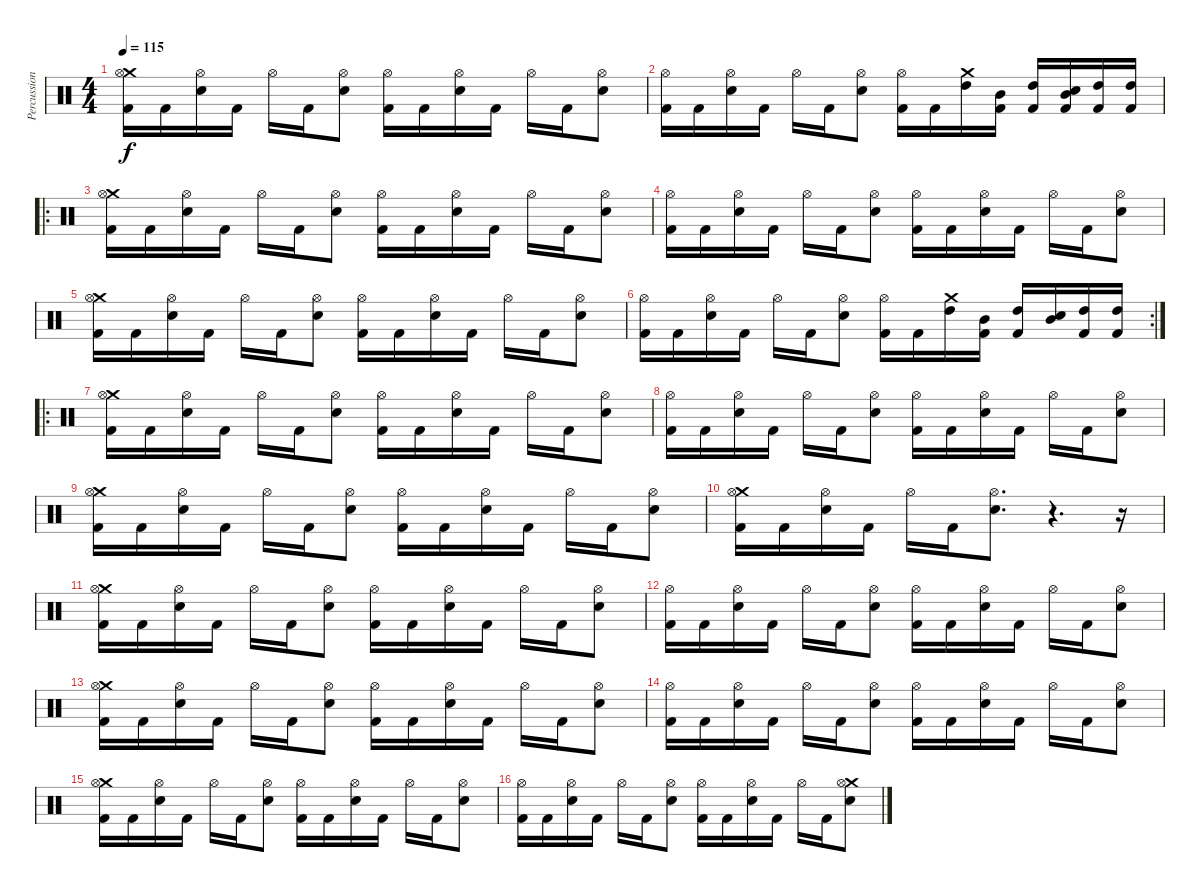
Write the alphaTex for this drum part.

\track ("Percussion" "Percussion") {instrument percussion}
\staff {score}
\articulation defaults
\ts (4 4)
\tempo 115
\clef neutral
\ks c
("Crash medium (hit)" "Hi-Hat (open)" "Kick (hit) 2").16{dy f} "Kick (hit) 2".16 ("Hi-Hat (open)" "Snare (hit) 2").16 "Kick (hit) 2".16 "Hi-Hat (open)".16 "Kick (hit) 2".16 ("Hi-Hat (open)" "Snare (hit) 2").8 ("Hi-Hat (open)" "Kick (hit) 2").16 "Kick (hit) 2".16 ("Hi-Hat (open)" "Snare (hit) 2").16 "Kick (hit) 2".16 "Hi-Hat (open)".16 "Kick (hit) 2".16 ("Hi-Hat (open)" "Snare (hit) 2").8 |
("Hi-Hat (open)" "Kick (hit) 2").16 "Kick (hit) 2".16 ("Hi-Hat (open)" "Snare (hit) 2").16 "Kick (hit) 2".16 "Hi-Hat (open)".16 "Kick (hit) 2".16 ("Hi-Hat (open)" "Snare (hit) 2").8 ("Hi-Hat (open)" "Kick (hit) 2").16 "Kick (hit) 2".16 ("Crash medium (hit)" "High Tom (hit)").16 ("Mid Tom (hit)" "Kick (hit) 2").16 ("High Tom (hit)" "Kick (hit) 2").16 ("Mid Tom (hit)" "Snare (hit) 2" "Kick (hit) 2").16 ("High Tom (hit)" "Kick (hit) 2").16 ("High Tom (hit)" "Kick (hit) 2").16 |
\ro
("Crash medium (hit)" "Hi-Hat (open)" "Kick (hit) 2").16 "Kick (hit) 2".16 ("Hi-Hat (open)" "Snare (hit) 2").16 "Kick (hit) 2".16 "Hi-Hat (open)".16 "Kick (hit) 2".16 ("Hi-Hat (open)" "Snare (hit) 2").8 ("Hi-Hat (open)" "Kick (hit) 2").16 "Kick (hit) 2".16 ("Hi-Hat (open)" "Snare (hit) 2").16 "Kick (hit) 2".16 "Hi-Hat (open)".16 "Kick (hit) 2".16 ("Hi-Hat (open)" "Snare (hit) 2").8 |
("Hi-Hat (open)" "Kick (hit) 2").16 "Kick (hit) 2".16 ("Hi-Hat (open)" "Snare (hit) 2").16 "Kick (hit) 2".16 "Hi-Hat (open)".16 "Kick (hit) 2".16 ("Hi-Hat (open)" "Snare (hit) 2").8 ("Hi-Hat (open)" "Kick (hit) 2").16 "Kick (hit) 2".16 ("Hi-Hat (open)" "Snare (hit) 2").16 "Kick (hit) 2".16 "Hi-Hat (open)".16 "Kick (hit) 2".16 ("Hi-Hat (open)" "Snare (hit) 2").8 |
("Crash medium (hit)" "Hi-Hat (open)" "Kick (hit) 2").16 "Kick (hit) 2".16 ("Hi-Hat (open)" "Snare (hit) 2").16 "Kick (hit) 2".16 "Hi-Hat (open)".16 "Kick (hit) 2".16 ("Hi-Hat (open)" "Snare (hit) 2").8 ("Hi-Hat (open)" "Kick (hit) 2").16 "Kick (hit) 2".16 ("Hi-Hat (open)" "Snare (hit) 2").16 "Kick (hit) 2".16 "Hi-Hat (open)".16 "Kick (hit) 2".16 ("Hi-Hat (open)" "Snare (hit) 2").8 |
\rc 2
("Hi-Hat (open)" "Kick (hit) 2").16 "Kick (hit) 2".16 ("Hi-Hat (open)" "Snare (hit) 2").16 "Kick (hit) 2".16 "Hi-Hat (open)".16 "Kick (hit) 2".16 ("Hi-Hat (open)" "Snare (hit) 2").8 ("Hi-Hat (open)" "Kick (hit) 2").16 "Kick (hit) 2".16 ("Crash medium (hit)" "High Tom (hit)").16 ("Mid Tom (hit)" "Kick (hit) 2").16 ("High Tom (hit)" "Kick (hit) 2").16 ("Mid Tom (hit)" "Snare (hit) 2").16 ("High Tom (hit)" "Kick (hit) 2").16 ("High Tom (hit)" "Kick (hit) 2").16 |
\ro
("Crash medium (hit)" "Hi-Hat (open)" "Kick (hit) 2").16 "Kick (hit) 2".16 ("Hi-Hat (open)" "Snare (hit) 2").16 "Kick (hit) 2".16 "Hi-Hat (open)".16 "Kick (hit) 2".16 ("Hi-Hat (open)" "Snare (hit) 2").8 ("Hi-Hat (open)" "Kick (hit) 2").16 "Kick (hit) 2".16 ("Hi-Hat (open)" "Snare (hit) 2").16 "Kick (hit) 2".16 "Hi-Hat (open)".16 "Kick (hit) 2".16 ("Hi-Hat (open)" "Snare (hit) 2").8 |
("Hi-Hat (open)" "Kick (hit) 2").16 "Kick (hit) 2".16 ("Hi-Hat (open)" "Snare (hit) 2").16 "Kick (hit) 2".16 "Hi-Hat (open)".16 "Kick (hit) 2".16 ("Hi-Hat (open)" "Snare (hit) 2").8 ("Hi-Hat (open)" "Kick (hit) 2").16 "Kick (hit) 2".16 ("Hi-Hat (open)" "Snare (hit) 2").16 "Kick (hit) 2".16 "Hi-Hat (open)".16 "Kick (hit) 2".16 ("Hi-Hat (open)" "Snare (hit) 2").8 |
("Crash medium (hit)" "Hi-Hat (open)" "Kick (hit) 2").16 "Kick (hit) 2".16 ("Hi-Hat (open)" "Snare (hit) 2").16 "Kick (hit) 2".16 "Hi-Hat (open)".16 "Kick (hit) 2".16 ("Hi-Hat (open)" "Snare (hit) 2").8 ("Hi-Hat (open)" "Kick (hit) 2").16 "Kick (hit) 2".16 ("Hi-Hat (open)" "Snare (hit) 2").16 "Kick (hit) 2".16 "Hi-Hat (open)".16 "Kick (hit) 2".16 ("Hi-Hat (open)" "Snare (hit) 2").8 |
("Crash medium (hit)" "Hi-Hat (open)" "Kick (hit) 2").16 "Kick (hit) 2".16 ("Hi-Hat (open)" "Snare (hit) 2").16 "Kick (hit) 2".16 "Hi-Hat (open)".16 "Kick (hit) 2".16 ("Hi-Hat (open)" "Snare (hit) 2").8{d} r.4{d} r.16 |
("Crash medium (hit)" "Hi-Hat (open)" "Kick (hit) 2").16 "Kick (hit) 2".16 ("Hi-Hat (open)" "Snare (hit) 2").16 "Kick (hit) 2".16 "Hi-Hat (open)".16 "Kick (hit) 2".16 ("Hi-Hat (open)" "Snare (hit) 2").8 ("Hi-Hat (open)" "Kick (hit) 2").16 "Kick (hit) 2".16 ("Hi-Hat (open)" "Snare (hit) 2").16 "Kick (hit) 2".16 "Hi-Hat (open)".16 "Kick (hit) 2".16 ("Hi-Hat (open)" "Snare (hit) 2").8 |
("Hi-Hat (open)" "Kick (hit) 2").16 "Kick (hit) 2".16 ("Hi-Hat (open)" "Snare (hit) 2").16 "Kick (hit) 2".16 "Hi-Hat (open)".16 "Kick (hit) 2".16 ("Hi-Hat (open)" "Snare (hit) 2").8 ("Hi-Hat (open)" "Kick (hit) 2").16 "Kick (hit) 2".16 ("Hi-Hat (open)" "Snare (hit) 2").16 "Kick (hit) 2".16 "Hi-Hat (open)".16 "Kick (hit) 2".16 ("Hi-Hat (open)" "Snare (hit) 2").8 |
("Crash medium (hit)" "Hi-Hat (open)" "Kick (hit) 2").16 "Kick (hit) 2".16 ("Hi-Hat (open)" "Snare (hit) 2").16 "Kick (hit) 2".16 "Hi-Hat (open)".16 "Kick (hit) 2".16 ("Hi-Hat (open)" "Snare (hit) 2").8 ("Hi-Hat (open)" "Kick (hit) 2").16 "Kick (hit) 2".16 ("Hi-Hat (open)" "Snare (hit) 2").16 "Kick (hit) 2".16 "Hi-Hat (open)".16 "Kick (hit) 2".16 ("Hi-Hat (open)" "Snare (hit) 2").8 |
("Hi-Hat (open)" "Kick (hit) 2").16 "Kick (hit) 2".16 ("Hi-Hat (open)" "Snare (hit) 2").16 "Kick (hit) 2".16 "Hi-Hat (open)".16 "Kick (hit) 2".16 ("Hi-Hat (open)" "Snare (hit) 2").8 ("Hi-Hat (open)" "Kick (hit) 2").16 "Kick (hit) 2".16 ("Hi-Hat (open)" "Snare (hit) 2").16 "Kick (hit) 2".16 "Hi-Hat (open)".16 "Kick (hit) 2".16 ("Hi-Hat (open)" "Snare (hit) 2").8 |
("Crash medium (hit)" "Hi-Hat (open)" "Kick (hit) 2").16 "Kick (hit) 2".16 ("Hi-Hat (open)" "Snare (hit) 2").16 "Kick (hit) 2".16 "Hi-Hat (open)".16 "Kick (hit) 2".16 ("Hi-Hat (open)" "Snare (hit) 2").8 ("Hi-Hat (open)" "Kick (hit) 2").16 "Kick (hit) 2".16 ("Hi-Hat (open)" "Snare (hit) 2").16 "Kick (hit) 2".16 "Hi-Hat (open)".16 "Kick (hit) 2".16 ("Hi-Hat (open)" "Snare (hit) 2").8 |
("Hi-Hat (open)" "Kick (hit) 2").16 "Kick (hit) 2".16 ("Hi-Hat (open)" "Snare (hit) 2").16 "Kick (hit) 2".16 "Hi-Hat (open)".16 "Kick (hit) 2".16 ("Hi-Hat (open)" "Snare (hit) 2").8 ("Hi-Hat (open)" "Kick (hit) 2").16 "Kick (hit) 2".16 ("Hi-Hat (open)" "Snare (hit) 2").16 "Kick (hit) 2".16 "Hi-Hat (open)".16 "Kick (hit) 2".16 ("Crash medium (hit)" "Hi-Hat (open)" "Snare (hit) 2").8
